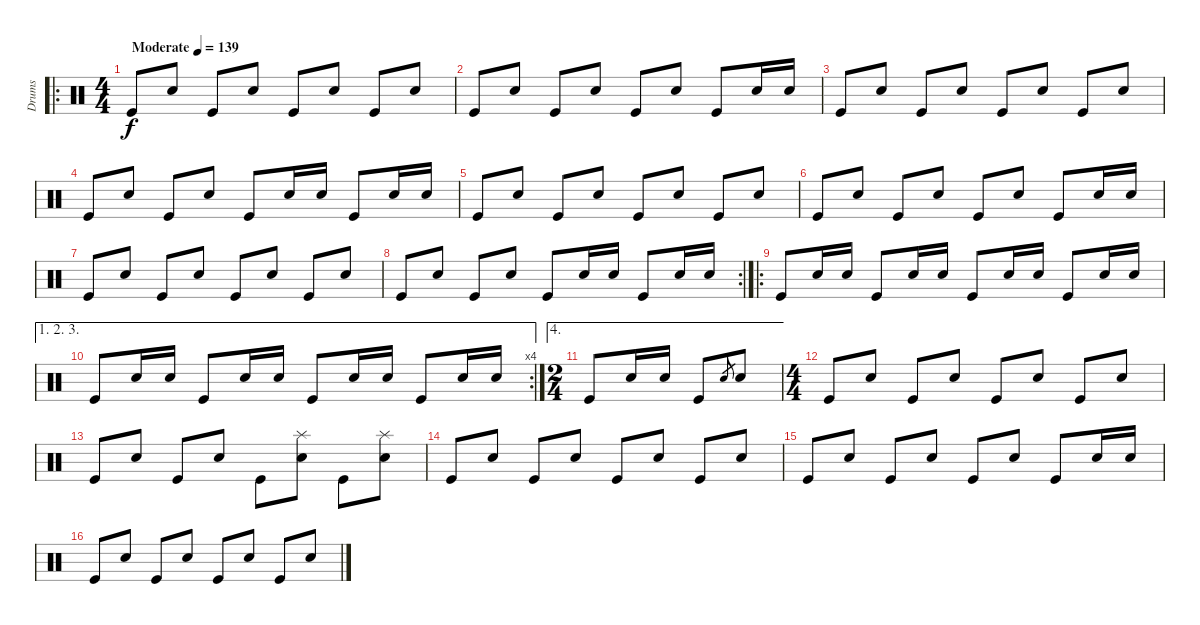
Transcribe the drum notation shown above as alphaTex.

\track ("Drums" "Drums") {instrument percussion}
\staff {score}
\articulation defaults
\ro
\ts (4 4)
\tempo (139 "Moderate")
\clef neutral
\ks c "Kick (hit)".8{dy f} "Snare (hit) 2".8 "Kick (hit)".8 "Snare (hit) 2".8 "Kick (hit)".8 "Snare (hit) 2".8 "Kick (hit)".8 "Snare (hit) 2".8
|
"Kick (hit)".8 "Snare (hit) 2".8 "Kick (hit)".8 "Snare (hit) 2".8 "Kick (hit)".8 "Snare (hit) 2".8 "Kick (hit)".8 "Snare (hit) 2".16 "Snare (hit) 2".16 |
"Kick (hit)".8 "Snare (hit) 2".8 "Kick (hit)".8 "Snare (hit) 2".8 "Kick (hit)".8 "Snare (hit) 2".8 "Kick (hit)".8 "Snare (hit) 2".8 |
"Kick (hit)".8 "Snare (hit) 2".8 "Kick (hit)".8 "Snare (hit) 2".8 "Kick (hit)".8 "Snare (hit) 2".16 "Snare (hit) 2".16 "Kick (hit)".8 "Snare (hit) 2".16 "Snare (hit) 2".16 |
"Kick (hit)".8 "Snare (hit) 2".8 "Kick (hit)".8 "Snare (hit) 2".8 "Kick (hit)".8 "Snare (hit) 2".8 "Kick (hit)".8 "Snare (hit) 2".8 |
"Kick (hit)".8 "Snare (hit) 2".8 "Kick (hit)".8 "Snare (hit) 2".8 "Kick (hit)".8 "Snare (hit) 2".8 "Kick (hit)".8 "Snare (hit) 2".16 "Snare (hit) 2".16 |
"Kick (hit)".8 "Snare (hit) 2".8 "Kick (hit)".8 "Snare (hit) 2".8 "Kick (hit)".8 "Snare (hit) 2".8 "Kick (hit)".8 "Snare (hit) 2".8 |
\rc 2 "Kick (hit)".8 "Snare (hit) 2".8 "Kick (hit)".8 "Snare (hit) 2".8 "Kick (hit)".8 "Snare (hit) 2".16 "Snare (hit) 2".16 "Kick (hit)".8 "Snare (hit) 2".16 "Snare (hit) 2".16
|
\ro "Kick (hit)".8 "Snare (hit) 2".16 "Snare (hit) 2".16 "Kick (hit)".8 "Snare (hit) 2".16 "Snare (hit) 2".16 "Kick (hit)".8 "Snare (hit) 2".16 "Snare (hit) 2".16 "Kick (hit)".8 "Snare (hit) 2".16 "Snare (hit) 2".16
|
\ae (1 2 3)
\rc 4 "Kick (hit)".8 "Snare (hit) 2".16 "Snare (hit) 2".16 "Kick (hit)".8 "Snare (hit) 2".16 "Snare (hit) 2".16 "Kick (hit)".8 "Snare (hit) 2".16 "Snare (hit) 2".16 "Kick (hit)".8 "Snare (hit) 2".16 "Snare (hit) 2".16
|
\ae 4
\ts (2 4)
"Kick (hit)".8 "Snare (hit) 2".16 "Snare (hit) 2".16 "Kick (hit)".8 "Snare (hit) 2".8{gr} "Snare (hit) 2".8 |
\ts (4 4)
"Kick (hit)".8 "Snare (hit) 2".8 "Kick (hit)".8 "Snare (hit) 2".8 "Kick (hit)".8 "Snare (hit) 2".8 "Kick (hit)".8 "Snare (hit) 2".8 |
"Kick (hit)".8 "Snare (hit) 2".8 "Kick (hit)".8 "Snare (hit) 2".8 "Kick (hit)".8 ("Splash (hit)" "Snare (hit) 2").8 "Kick (hit)".8 ("Splash (hit)" "Snare (hit) 2").8 |
"Kick (hit)".8 "Snare (hit) 2".8 "Kick (hit)".8 "Snare (hit) 2".8 "Kick (hit)".8 "Snare (hit) 2".8 "Kick (hit)".8 "Snare (hit) 2".8 |
"Kick (hit)".8 "Snare (hit) 2".8 "Kick (hit)".8 "Snare (hit) 2".8 "Kick (hit)".8 "Snare (hit) 2".8 "Kick (hit)".8 "Snare (hit) 2".16 "Snare (hit) 2".16 |
"Kick (hit)".8 "Snare (hit) 2".8 "Kick (hit)".8 "Snare (hit) 2".8 "Kick (hit)".8 "Snare (hit) 2".8 "Kick (hit)".8 "Snare (hit) 2".8
